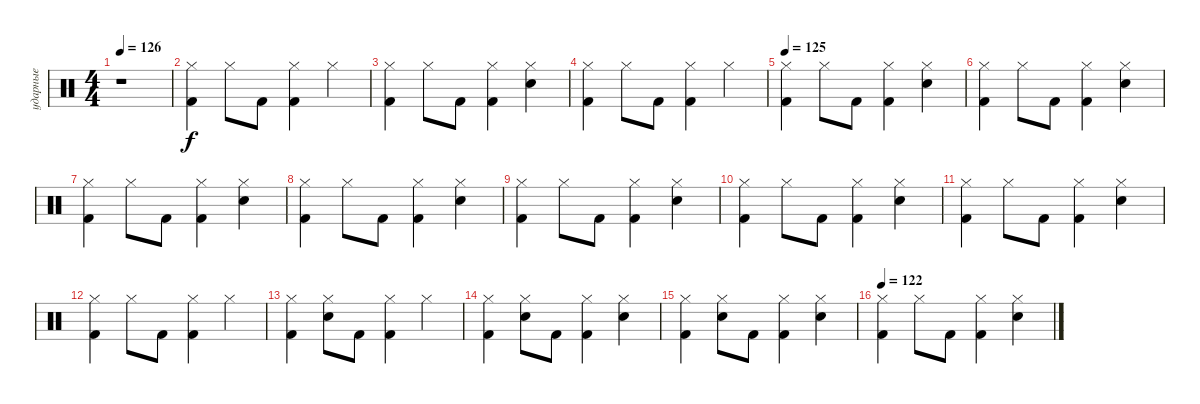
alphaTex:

\track ("ударные" "ударные") {instrument percussion}
\staff {score}
\articulation defaults
\ts (4 4)
\tempo 126
\clef neutral
\ks c
r.1{dy f} |
("Hi-Hat (closed)" "Kick (hit) 2").4 "Hi-Hat (closed)".8 "Kick (hit) 2".8 ("Hi-Hat (closed)" "Kick (hit) 2").4 "Hi-Hat (closed)".4 |
("Hi-Hat (closed)" "Kick (hit) 2").4 "Hi-Hat (closed)".8 "Kick (hit) 2".8 ("Hi-Hat (closed)" "Kick (hit) 2").4 ("Hi-Hat (closed)" "Snare (hit) 2").4 |
("Hi-Hat (closed)" "Kick (hit) 2").4 "Hi-Hat (closed)".8 "Kick (hit) 2".8 ("Hi-Hat (closed)" "Kick (hit) 2").4 "Hi-Hat (closed)".4 |
\tempo 125
("Hi-Hat (closed)" "Kick (hit) 2").4 "Hi-Hat (closed)".8 "Kick (hit) 2".8 ("Hi-Hat (closed)" "Kick (hit) 2").4 ("Electric Snare (hit)" "Hi-Hat (closed)").4 |
("Hi-Hat (closed)" "Kick (hit) 2").4 "Hi-Hat (closed)".8 "Kick (hit) 2".8 ("Hi-Hat (closed)" "Kick (hit) 2").4 ("Hi-Hat (closed)" "Electric Snare (hit)").4 |
("Hi-Hat (closed)" "Kick (hit) 2").4 "Hi-Hat (closed)".8 "Kick (hit) 2".8 ("Hi-Hat (closed)" "Kick (hit) 2").4 ("Hi-Hat (closed)" "Electric Snare (hit)").4 |
("Hi-Hat (closed)" "Kick (hit) 2").4 "Hi-Hat (closed)".8 "Kick (hit) 2".8 ("Hi-Hat (closed)" "Kick (hit) 2").4 ("Hi-Hat (closed)" "Electric Snare (hit)").4 |
("Hi-Hat (closed)" "Kick (hit) 2").4 "Hi-Hat (closed)".8 "Kick (hit) 2".8 ("Hi-Hat (closed)" "Kick (hit) 2").4 ("Hi-Hat (closed)" "Electric Snare (hit)").4 |
("Hi-Hat (closed)" "Kick (hit) 2").4 "Hi-Hat (closed)".8 "Kick (hit) 2".8 ("Hi-Hat (closed)" "Kick (hit) 2").4 ("Hi-Hat (closed)" "Electric Snare (hit)").4 |
("Hi-Hat (closed)" "Kick (hit) 2").4 "Hi-Hat (closed)".8 "Kick (hit) 2".8 ("Hi-Hat (closed)" "Kick (hit) 2").4 ("Hi-Hat (closed)" "Electric Snare (hit)").4 |
("Hi-Hat (closed)" "Kick (hit) 2").4 "Hi-Hat (closed)".8 "Kick (hit) 2".8 ("Hi-Hat (closed)" "Kick (hit) 2").4 "Hi-Hat (closed)".4 |
("Hi-Hat (closed)" "Kick (hit) 2").4 ("Hi-Hat (closed)" "Electric Snare (hit)").8 "Kick (hit) 2".8 ("Hi-Hat (closed)" "Kick (hit) 2").4 "Hi-Hat (closed)".4 |
("Hi-Hat (closed)" "Kick (hit) 2").4 ("Hi-Hat (closed)" "Electric Snare (hit)").8 "Kick (hit) 2".8 ("Hi-Hat (closed)" "Kick (hit) 2").4 ("Hi-Hat (closed)" "Electric Snare (hit)").4 |
("Hi-Hat (closed)" "Kick (hit) 2").4 ("Hi-Hat (closed)" "Electric Snare (hit)").8 "Kick (hit) 2".8 ("Hi-Hat (closed)" "Kick (hit) 2").4 ("Hi-Hat (closed)" "Electric Snare (hit)").4 |
\tempo 122
("Hi-Hat (closed)" "Kick (hit) 2").4 "Hi-Hat (closed)".8 "Kick (hit) 2".8 ("Hi-Hat (closed)" "Kick (hit) 2").4 ("Hi-Hat (closed)" "Electric Snare (hit)").4
